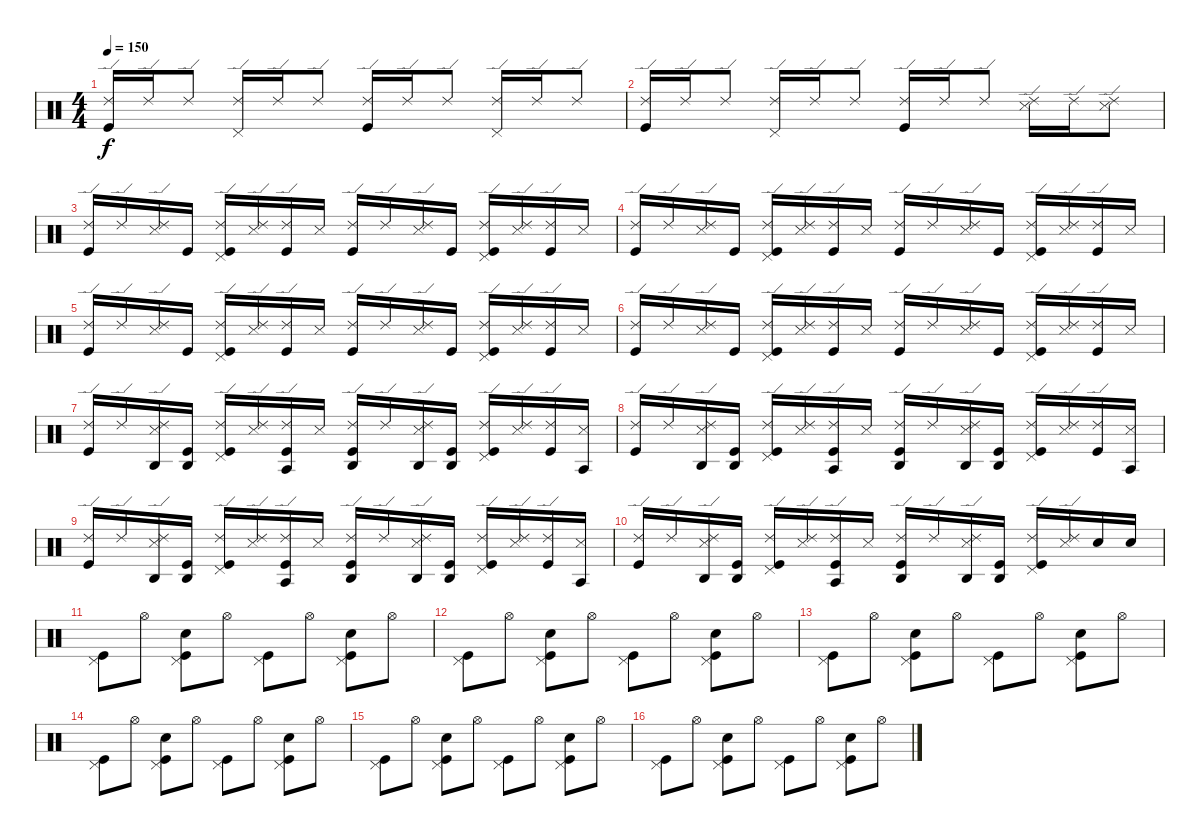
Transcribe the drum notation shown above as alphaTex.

\track "" {instrument percussion}
\staff {score}
\articulation defaults
\ts (4 4)
\tempo 150
\clef neutral
\ks c
("Ride (edge) 2" "Kick (hit)").16{dy f} "Ride (edge) 2".16 "Ride (edge) 2".8 ("Ride (edge) 2" "Pedal Hi-Hat (hit)").16 "Ride (edge) 2".16 "Ride (edge) 2".8 ("Ride (edge) 2" "Kick (hit)").16 "Ride (edge) 2".16 "Ride (edge) 2".8 ("Ride (edge) 2" "Pedal Hi-Hat (hit)").16 "Ride (edge) 2".16 "Ride (edge) 2".8 |
("Ride (edge) 2" "Kick (hit)").16 "Ride (edge) 2".16 "Ride (edge) 2".8 ("Ride (edge) 2" "Pedal Hi-Hat (hit)").16 "Ride (edge) 2".16 "Ride (edge) 2".8 ("Ride (edge) 2" "Kick (hit)").16 "Ride (edge) 2".16 "Ride (edge) 2".8 ("Ride (edge) 2" "Snare (side stick) 3").16 "Ride (edge) 2".16 ("Ride (edge) 2" "Snare (side stick) 3").8 |
("Ride (edge) 2" "Kick (hit)").16 "Ride (edge) 2".16 ("Ride (edge) 2" "Snare (side stick) 3").16 "Kick (hit)".16 ("Ride (edge) 2" "Pedal Hi-Hat (hit)" "Kick (hit)").16 ("Ride (edge) 2" "Snare (side stick) 3").16 ("Ride (edge) 2" "Kick (hit)").16 "Snare (side stick) 3".16 ("Ride (edge) 2" "Kick (hit)").16 "Ride (edge) 2".16 ("Ride (edge) 2" "Snare (side stick) 3").16 "Kick (hit)".16 ("Ride (edge) 2" "Pedal Hi-Hat (hit)" "Kick (hit)").16 ("Ride (edge) 2" "Snare (side stick) 3").16 ("Ride (edge) 2" "Kick (hit)").16 "Snare (side stick) 3".16 |
("Ride (edge) 2" "Kick (hit)").16 "Ride (edge) 2".16 ("Ride (edge) 2" "Snare (side stick) 3").16 "Kick (hit)".16 ("Ride (edge) 2" "Pedal Hi-Hat (hit)" "Kick (hit)").16 ("Ride (edge) 2" "Snare (side stick) 3").16 ("Ride (edge) 2" "Kick (hit)").16 "Snare (side stick) 3".16 ("Ride (edge) 2" "Kick (hit)").16 "Ride (edge) 2".16 ("Ride (edge) 2" "Snare (side stick) 3").16 "Kick (hit)".16 ("Ride (edge) 2" "Pedal Hi-Hat (hit)" "Kick (hit)").16 ("Ride (edge) 2" "Snare (side stick) 3").16 ("Ride (edge) 2" "Kick (hit)").16 "Snare (side stick) 3".16 |
("Ride (edge) 2" "Kick (hit)").16 "Ride (edge) 2".16 ("Ride (edge) 2" "Snare (side stick) 3").16 "Kick (hit)".16 ("Ride (edge) 2" "Pedal Hi-Hat (hit)" "Kick (hit)").16 ("Ride (edge) 2" "Snare (side stick) 3").16 ("Ride (edge) 2" "Kick (hit)").16 "Snare (side stick) 3".16 ("Ride (edge) 2" "Kick (hit)").16 "Ride (edge) 2".16 ("Ride (edge) 2" "Snare (side stick) 3").16 "Kick (hit)".16 ("Ride (edge) 2" "Pedal Hi-Hat (hit)" "Kick (hit)").16 ("Ride (edge) 2" "Snare (side stick) 3").16 ("Ride (edge) 2" "Kick (hit)").16 "Snare (side stick) 3".16 |
("Ride (edge) 2" "Kick (hit)").16 "Ride (edge) 2".16 ("Ride (edge) 2" "Snare (side stick) 3").16 "Kick (hit)".16 ("Ride (edge) 2" "Pedal Hi-Hat (hit)" "Kick (hit)").16 ("Ride (edge) 2" "Snare (side stick) 3").16 ("Ride (edge) 2" "Kick (hit)").16 "Snare (side stick) 3".16 ("Ride (edge) 2" "Kick (hit)").16 "Ride (edge) 2".16 ("Ride (edge) 2" "Snare (side stick) 3").16 "Kick (hit)".16 ("Ride (edge) 2" "Pedal Hi-Hat (hit)" "Kick (hit)").16 ("Ride (edge) 2" "Snare (side stick) 3").16 ("Ride (edge) 2" "Kick (hit)").16 "Snare (side stick) 3".16 |
("Ride (edge) 2" "Kick (hit)").16 "Ride (edge) 2".16 ("Ride (edge) 2" "Snare (side stick) 3" "Agogo high (hit)").16 ("Agogo high (hit)" "Kick (hit)").16 ("Ride (edge) 2" "Pedal Hi-Hat (hit)" "Kick (hit)").16 ("Ride (edge) 2" "Snare (side stick) 3").16 ("Ride (edge) 2" "Agogo tow (hit)" "Kick (hit)").16 "Snare (side stick) 3".16 ("Ride (edge) 2" "Agogo high (hit)" "Kick (hit)").16 "Ride (edge) 2".16 ("Ride (edge) 2" "Snare (side stick) 3" "Agogo high (hit)").16 ("Agogo high (hit)" "Kick (hit)").16 ("Ride (edge) 2" "Pedal Hi-Hat (hit)" "Kick (hit)").16 ("Ride (edge) 2" "Snare (side stick) 3").16 ("Ride (edge) 2" "Kick (hit)").16 ("Snare (side stick) 3" "Agogo tow (hit)").16 |
("Ride (edge) 2" "Kick (hit)").16 "Ride (edge) 2".16 ("Ride (edge) 2" "Snare (side stick) 3" "Agogo high (hit)").16 ("Agogo high (hit)" "Kick (hit)").16 ("Ride (edge) 2" "Pedal Hi-Hat (hit)" "Kick (hit)").16 ("Ride (edge) 2" "Snare (side stick) 3").16 ("Ride (edge) 2" "Agogo tow (hit)" "Kick (hit)").16 "Snare (side stick) 3".16 ("Ride (edge) 2" "Agogo high (hit)" "Kick (hit)").16 "Ride (edge) 2".16 ("Ride (edge) 2" "Snare (side stick) 3" "Agogo high (hit)").16 ("Agogo high (hit)" "Kick (hit)").16 ("Ride (edge) 2" "Pedal Hi-Hat (hit)" "Kick (hit)").16 ("Ride (edge) 2" "Snare (side stick) 3").16 ("Ride (edge) 2" "Kick (hit)").16 ("Snare (side stick) 3" "Agogo tow (hit)").16 |
("Ride (edge) 2" "Kick (hit)").16 "Ride (edge) 2".16 ("Ride (edge) 2" "Snare (side stick) 3" "Agogo high (hit)").16 ("Agogo high (hit)" "Kick (hit)").16 ("Ride (edge) 2" "Pedal Hi-Hat (hit)" "Kick (hit)").16 ("Ride (edge) 2" "Snare (side stick) 3").16 ("Ride (edge) 2" "Agogo tow (hit)" "Kick (hit)").16 "Snare (side stick) 3".16 ("Ride (edge) 2" "Agogo high (hit)" "Kick (hit)").16 "Ride (edge) 2".16 ("Ride (edge) 2" "Snare (side stick) 3" "Agogo high (hit)").16 ("Agogo high (hit)" "Kick (hit)").16 ("Ride (edge) 2" "Pedal Hi-Hat (hit)" "Kick (hit)").16 ("Ride (edge) 2" "Snare (side stick) 3").16 ("Ride (edge) 2" "Kick (hit)").16 ("Snare (side stick) 3" "Agogo tow (hit)").16 |
("Ride (edge) 2" "Kick (hit)").16 "Ride (edge) 2".16 ("Ride (edge) 2" "Snare (side stick) 3" "Agogo high (hit)").16 ("Agogo high (hit)" "Kick (hit)").16 ("Ride (edge) 2" "Pedal Hi-Hat (hit)" "Kick (hit)").16 ("Ride (edge) 2" "Snare (side stick) 3").16 ("Ride (edge) 2" "Agogo tow (hit)" "Kick (hit)").16 "Snare (side stick) 3".16 ("Ride (edge) 2" "Agogo high (hit)" "Kick (hit)").16 "Ride (edge) 2".16 ("Ride (edge) 2" "Snare (side stick) 3" "Agogo high (hit)").16 ("Agogo high (hit)" "Kick (hit)").16 ("Ride (edge) 2" "Pedal Hi-Hat (hit)" "Kick (hit)").16 ("Ride (edge) 2" "Snare (side stick) 3").16 "Electric Snare (hit)".16 "Electric Snare (hit)".16 |
("Pedal Hi-Hat (hit)" "Kick (hit)").8 "Hi-Hat (open)".8 ("Pedal Hi-Hat (hit)" "Electric Snare (hit)" "Kick (hit)").8 "Hi-Hat (open)".8 ("Pedal Hi-Hat (hit)" "Kick (hit)").8 "Hi-Hat (open)".8 ("Pedal Hi-Hat (hit)" "Electric Snare (hit)" "Kick (hit)").8 "Hi-Hat (open)".8 |
("Pedal Hi-Hat (hit)" "Kick (hit)").8 "Hi-Hat (open)".8 ("Pedal Hi-Hat (hit)" "Electric Snare (hit)" "Kick (hit)").8 "Hi-Hat (open)".8 ("Pedal Hi-Hat (hit)" "Kick (hit)").8 "Hi-Hat (open)".8 ("Pedal Hi-Hat (hit)" "Electric Snare (hit)" "Kick (hit)").8 "Hi-Hat (open)".8 |
("Pedal Hi-Hat (hit)" "Kick (hit)").8 "Hi-Hat (open)".8 ("Pedal Hi-Hat (hit)" "Electric Snare (hit)" "Kick (hit)").8 "Hi-Hat (open)".8 ("Pedal Hi-Hat (hit)" "Kick (hit)").8 "Hi-Hat (open)".8 ("Pedal Hi-Hat (hit)" "Electric Snare (hit)" "Kick (hit)").8 "Hi-Hat (open)".8 |
("Pedal Hi-Hat (hit)" "Kick (hit)").8 "Hi-Hat (open)".8 ("Pedal Hi-Hat (hit)" "Electric Snare (hit)" "Kick (hit)").8 "Hi-Hat (open)".8 ("Pedal Hi-Hat (hit)" "Kick (hit)").8 "Hi-Hat (open)".8 ("Pedal Hi-Hat (hit)" "Electric Snare (hit)" "Kick (hit)").8 "Hi-Hat (open)".8 |
("Pedal Hi-Hat (hit)" "Kick (hit)").8 "Hi-Hat (open)".8 ("Pedal Hi-Hat (hit)" "Electric Snare (hit)" "Kick (hit)").8 "Hi-Hat (open)".8 ("Pedal Hi-Hat (hit)" "Kick (hit)").8 "Hi-Hat (open)".8 ("Pedal Hi-Hat (hit)" "Electric Snare (hit)" "Kick (hit)").8 "Hi-Hat (open)".8 |
("Pedal Hi-Hat (hit)" "Kick (hit)").8 "Hi-Hat (open)".8 ("Pedal Hi-Hat (hit)" "Electric Snare (hit)" "Kick (hit)").8 "Hi-Hat (open)".8 ("Pedal Hi-Hat (hit)" "Kick (hit)").8 "Hi-Hat (open)".8 ("Pedal Hi-Hat (hit)" "Electric Snare (hit)" "Kick (hit)").8 "Hi-Hat (open)".8
